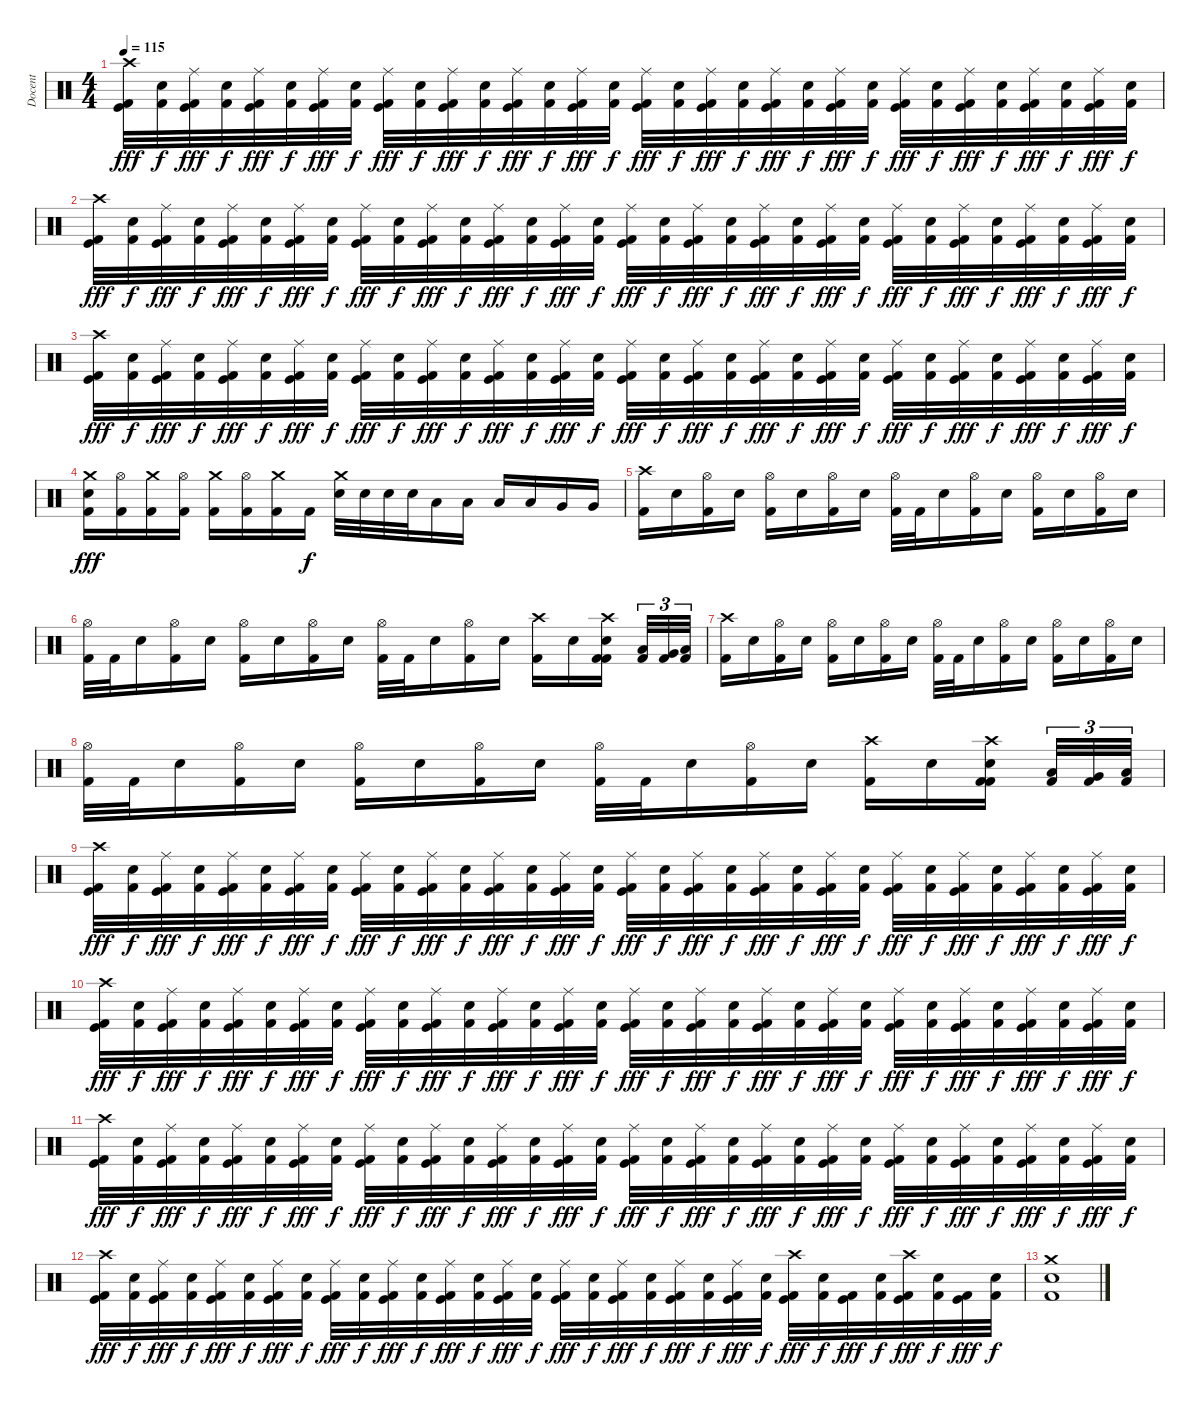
\track ("Docent" "Docent") {instrument percussion}
\staff {score}
\articulation defaults
\ts (4 4)
\tempo 115
\clef neutral
\ks c
("Crash high (hit)" "Kick (hit)" "Kick (hit) 2").32{dy fff} ("Electric Snare (hit)" "Kick (hit) 2").32{dy f} ("Ride (middle)" "Kick (hit)" "Kick (hit) 2").32{dy fff} ("Electric Snare (hit)" "Kick (hit) 2").32{dy f} ("Ride (middle)" "Kick (hit)" "Kick (hit) 2").32{dy fff} ("Electric Snare (hit)" "Kick (hit) 2").32{dy f} ("Ride (middle)" "Kick (hit)" "Kick (hit) 2").32{dy fff} ("Electric Snare (hit)" "Kick (hit) 2").32{dy f} ("Ride (middle)" "Kick (hit)" "Kick (hit) 2").32{dy fff} ("Electric Snare (hit)" "Kick (hit) 2").32{dy f} ("Ride (middle)" "Kick (hit)" "Kick (hit) 2").32{dy fff} ("Electric Snare (hit)" "Kick (hit) 2").32{dy f} ("Ride (middle)" "Kick (hit)" "Kick (hit) 2").32{dy fff} ("Electric Snare (hit)" "Kick (hit) 2").32{dy f} ("Ride (middle)" "Kick (hit)" "Kick (hit) 2").32{dy fff} ("Electric Snare (hit)" "Kick (hit) 2").32{dy f} ("Ride (middle)" "Kick (hit)" "Kick (hit) 2").32{dy fff} ("Electric Snare (hit)" "Kick (hit) 2").32{dy f} ("Ride (middle)" "Kick (hit)" "Kick (hit) 2").32{dy fff} ("Electric Snare (hit)" "Kick (hit) 2").32{dy f} ("Ride (middle)" "Kick (hit)" "Kick (hit) 2").32{dy fff} ("Electric Snare (hit)" "Kick (hit) 2").32{dy f} ("Ride (middle)" "Kick (hit)" "Kick (hit) 2").32{dy fff} ("Electric Snare (hit)" "Kick (hit) 2").32{dy f} ("Ride (middle)" "Kick (hit)" "Kick (hit) 2").32{dy fff} ("Electric Snare (hit)" "Kick (hit) 2").32{dy f} ("Ride (middle)" "Kick (hit)" "Kick (hit) 2").32{dy fff} ("Electric Snare (hit)" "Kick (hit) 2").32{dy f} ("Ride (middle)" "Kick (hit)" "Kick (hit) 2").32{dy fff} ("Electric Snare (hit)" "Kick (hit) 2").32{dy f} ("Ride (middle)" "Kick (hit)" "Kick (hit) 2").32{dy fff} ("Electric Snare (hit)" "Kick (hit) 2").32{dy f} |
("Crash high (hit)" "Kick (hit)" "Kick (hit) 2").32{dy fff} ("Electric Snare (hit)" "Kick (hit) 2").32{dy f} ("Ride (middle)" "Kick (hit)" "Kick (hit) 2").32{dy fff} ("Electric Snare (hit)" "Kick (hit) 2").32{dy f} ("Ride (middle)" "Kick (hit)" "Kick (hit) 2").32{dy fff} ("Electric Snare (hit)" "Kick (hit) 2").32{dy f} ("Ride (middle)" "Kick (hit)" "Kick (hit) 2").32{dy fff} ("Electric Snare (hit)" "Kick (hit) 2").32{dy f} ("Ride (middle)" "Kick (hit)" "Kick (hit) 2").32{dy fff} ("Electric Snare (hit)" "Kick (hit) 2").32{dy f} ("Ride (middle)" "Kick (hit)" "Kick (hit) 2").32{dy fff} ("Electric Snare (hit)" "Kick (hit) 2").32{dy f} ("Ride (middle)" "Kick (hit)" "Kick (hit) 2").32{dy fff} ("Electric Snare (hit)" "Kick (hit) 2").32{dy f} ("Ride (middle)" "Kick (hit)" "Kick (hit) 2").32{dy fff} ("Electric Snare (hit)" "Kick (hit) 2").32{dy f} ("Ride (middle)" "Kick (hit)" "Kick (hit) 2").32{dy fff} ("Electric Snare (hit)" "Kick (hit) 2").32{dy f} ("Ride (middle)" "Kick (hit)" "Kick (hit) 2").32{dy fff} ("Electric Snare (hit)" "Kick (hit) 2").32{dy f} ("Ride (middle)" "Kick (hit)" "Kick (hit) 2").32{dy fff} ("Electric Snare (hit)" "Kick (hit) 2").32{dy f} ("Ride (middle)" "Kick (hit)" "Kick (hit) 2").32{dy fff} ("Electric Snare (hit)" "Kick (hit) 2").32{dy f} ("Ride (middle)" "Kick (hit)" "Kick (hit) 2").32{dy fff} ("Electric Snare (hit)" "Kick (hit) 2").32{dy f} ("Ride (middle)" "Kick (hit)" "Kick (hit) 2").32{dy fff} ("Electric Snare (hit)" "Kick (hit) 2").32{dy f} ("Ride (middle)" "Kick (hit)" "Kick (hit) 2").32{dy fff} ("Electric Snare (hit)" "Kick (hit) 2").32{dy f} ("Ride (middle)" "Kick (hit)" "Kick (hit) 2").32{dy fff} ("Electric Snare (hit)" "Kick (hit) 2").32{dy f} |
("Crash high (hit)" "Kick (hit)" "Kick (hit) 2").32{dy fff} ("Electric Snare (hit)" "Kick (hit) 2").32{dy f} ("Ride (middle)" "Kick (hit)" "Kick (hit) 2").32{dy fff} ("Electric Snare (hit)" "Kick (hit) 2").32{dy f} ("Ride (middle)" "Kick (hit)" "Kick (hit) 2").32{dy fff} ("Electric Snare (hit)" "Kick (hit) 2").32{dy f} ("Ride (middle)" "Kick (hit)" "Kick (hit) 2").32{dy fff} ("Electric Snare (hit)" "Kick (hit) 2").32{dy f} ("Ride (middle)" "Kick (hit)" "Kick (hit) 2").32{dy fff} ("Electric Snare (hit)" "Kick (hit) 2").32{dy f} ("Ride (middle)" "Kick (hit)" "Kick (hit) 2").32{dy fff} ("Electric Snare (hit)" "Kick (hit) 2").32{dy f} ("Ride (middle)" "Kick (hit)" "Kick (hit) 2").32{dy fff} ("Electric Snare (hit)" "Kick (hit) 2").32{dy f} ("Ride (middle)" "Kick (hit)" "Kick (hit) 2").32{dy fff} ("Electric Snare (hit)" "Kick (hit) 2").32{dy f} ("Ride (middle)" "Kick (hit)" "Kick (hit) 2").32{dy fff} ("Electric Snare (hit)" "Kick (hit) 2").32{dy f} ("Ride (middle)" "Kick (hit)" "Kick (hit) 2").32{dy fff} ("Electric Snare (hit)" "Kick (hit) 2").32{dy f} ("Ride (middle)" "Kick (hit)" "Kick (hit) 2").32{dy fff} ("Electric Snare (hit)" "Kick (hit) 2").32{dy f} ("Ride (middle)" "Kick (hit)" "Kick (hit) 2").32{dy fff} ("Electric Snare (hit)" "Kick (hit) 2").32{dy f} ("Ride (middle)" "Kick (hit)" "Kick (hit) 2").32{dy fff} ("Electric Snare (hit)" "Kick (hit) 2").32{dy f} ("Ride (middle)" "Kick (hit)" "Kick (hit) 2").32{dy fff} ("Electric Snare (hit)" "Kick (hit) 2").32{dy f} ("Ride (middle)" "Kick (hit)" "Kick (hit) 2").32{dy fff} ("Electric Snare (hit)" "Kick (hit) 2").32{dy f} ("Ride (middle)" "Kick (hit)" "Kick (hit) 2").32{dy fff} ("Electric Snare (hit)" "Kick (hit) 2").32{dy f} |
("Crash medium (hit)" "Electric Snare (hit)" "Kick (hit) 2").16{dy fff} ("Hi-Hat (open)" "Kick (hit) 2").16 ("Crash medium (hit)" "Kick (hit) 2").16 ("Hi-Hat (open)" "Kick (hit) 2").16 ("Crash medium (hit)" "Kick (hit) 2").16 ("Hi-Hat (open)" "Kick (hit) 2").16 ("Crash medium (hit)" "Kick (hit) 2").16 "Kick (hit) 2".16{dy f} ("Crash medium (hit)" "Electric Snare (hit)").32 "Electric Snare (hit)".32 "Electric Snare (hit)".32 "Electric Snare (hit)".32 "Low Tom (hit)".16 "Low Tom (hit)".16 "Low Tom (hit)".16 "Low Tom (hit)".16 "Very Low Tom (hit)".16 "Very Low Tom (hit)".16 |
("Crash high (hit)" "Kick (hit) 2").16 "Electric Snare (hit)".16 ("Hi-Hat (open)" "Kick (hit) 2").16 "Electric Snare (hit)".16 ("Hi-Hat (open)" "Kick (hit) 2").16 "Electric Snare (hit)".16 ("Hi-Hat (open)" "Kick (hit) 2").16 "Electric Snare (hit)".16 ("Hi-Hat (open)" "Kick (hit) 2").32 "Kick (hit) 2".32 "Electric Snare (hit)".16 ("Hi-Hat (open)" "Kick (hit) 2").16 "Electric Snare (hit)".16 ("Hi-Hat (open)" "Kick (hit) 2").16 "Electric Snare (hit)".16 ("Hi-Hat (open)" "Kick (hit) 2").16 "Electric Snare (hit)".16 |
("Hi-Hat (open)" "Kick (hit) 2").32 "Kick (hit) 2".32 "Electric Snare (hit)".16 ("Hi-Hat (open)" "Kick (hit) 2").16 "Electric Snare (hit)".16 ("Hi-Hat (open)" "Kick (hit) 2").16 "Electric Snare (hit)".16 ("Hi-Hat (open)" "Kick (hit) 2").16 "Electric Snare (hit)".16 ("Hi-Hat (open)" "Kick (hit) 2").32 "Kick (hit) 2".32 "Electric Snare (hit)".16 ("Hi-Hat (open)" "Kick (hit) 2").16 "Electric Snare (hit)".16 ("Crash high (hit)" "Kick (hit) 2").16 "Electric Snare (hit)".16 ("Crash high (hit)" "Electric Snare (hit)" "Kick (hit) 2" "Kick (hit) 2").16 ("Kick (hit) 2" "Low Tom (hit)").32{tu (3 2)} ("Kick (hit) 2" "Very Low Tom (hit)").32{tu (3 2)} ("Kick (hit) 2" "Low Floor Tom (hit)").32{tu (3 2)} |
("Crash high (hit)" "Kick (hit) 2").16 "Electric Snare (hit)".16 ("Hi-Hat (open)" "Kick (hit) 2").16 "Electric Snare (hit)".16 ("Hi-Hat (open)" "Kick (hit) 2").16 "Electric Snare (hit)".16 ("Hi-Hat (open)" "Kick (hit) 2").16 "Electric Snare (hit)".16 ("Hi-Hat (open)" "Kick (hit) 2").32 "Kick (hit) 2".32 "Electric Snare (hit)".16 ("Hi-Hat (open)" "Kick (hit) 2").16 "Electric Snare (hit)".16 ("Hi-Hat (open)" "Kick (hit) 2").16 "Electric Snare (hit)".16 ("Hi-Hat (open)" "Kick (hit) 2").16 "Electric Snare (hit)".16 |
("Hi-Hat (open)" "Kick (hit) 2").32 "Kick (hit) 2".32 "Electric Snare (hit)".16 ("Hi-Hat (open)" "Kick (hit) 2").16 "Electric Snare (hit)".16 ("Hi-Hat (open)" "Kick (hit) 2").16 "Electric Snare (hit)".16 ("Hi-Hat (open)" "Kick (hit) 2").16 "Electric Snare (hit)".16 ("Hi-Hat (open)" "Kick (hit) 2").32 "Kick (hit) 2".32 "Electric Snare (hit)".16 ("Hi-Hat (open)" "Kick (hit) 2").16 "Electric Snare (hit)".16 ("Crash high (hit)" "Kick (hit) 2").16 "Electric Snare (hit)".16 ("Crash high (hit)" "Electric Snare (hit)" "Kick (hit) 2" "Kick (hit) 2").16 ("Kick (hit) 2" "Low Tom (hit)").32{tu (3 2)} ("Kick (hit) 2" "Very Low Tom (hit)").32{tu (3 2)} ("Kick (hit) 2" "Low Floor Tom (hit)").32{tu (3 2)} |
("Crash high (hit)" "Kick (hit)" "Kick (hit) 2").32{dy fff} ("Electric Snare (hit)" "Kick (hit) 2").32{dy f} ("Ride (middle)" "Kick (hit)" "Kick (hit) 2").32{dy fff} ("Electric Snare (hit)" "Kick (hit) 2").32{dy f} ("Ride (middle)" "Kick (hit)" "Kick (hit) 2").32{dy fff} ("Electric Snare (hit)" "Kick (hit) 2").32{dy f} ("Ride (middle)" "Kick (hit)" "Kick (hit) 2").32{dy fff} ("Electric Snare (hit)" "Kick (hit) 2").32{dy f} ("Ride (middle)" "Kick (hit)" "Kick (hit) 2").32{dy fff} ("Electric Snare (hit)" "Kick (hit) 2").32{dy f} ("Ride (middle)" "Kick (hit)" "Kick (hit) 2").32{dy fff} ("Electric Snare (hit)" "Kick (hit) 2").32{dy f} ("Ride (middle)" "Kick (hit)" "Kick (hit) 2").32{dy fff} ("Electric Snare (hit)" "Kick (hit) 2").32{dy f} ("Ride (middle)" "Kick (hit)" "Kick (hit) 2").32{dy fff} ("Electric Snare (hit)" "Kick (hit) 2").32{dy f} ("Ride (middle)" "Kick (hit)" "Kick (hit) 2").32{dy fff} ("Electric Snare (hit)" "Kick (hit) 2").32{dy f} ("Ride (middle)" "Kick (hit)" "Kick (hit) 2").32{dy fff} ("Electric Snare (hit)" "Kick (hit) 2").32{dy f} ("Ride (middle)" "Kick (hit)" "Kick (hit) 2").32{dy fff} ("Electric Snare (hit)" "Kick (hit) 2").32{dy f} ("Ride (middle)" "Kick (hit)" "Kick (hit) 2").32{dy fff} ("Electric Snare (hit)" "Kick (hit) 2").32{dy f} ("Ride (middle)" "Kick (hit)" "Kick (hit) 2").32{dy fff} ("Electric Snare (hit)" "Kick (hit) 2").32{dy f} ("Ride (middle)" "Kick (hit)" "Kick (hit) 2").32{dy fff} ("Electric Snare (hit)" "Kick (hit) 2").32{dy f} ("Ride (middle)" "Kick (hit)" "Kick (hit) 2").32{dy fff} ("Electric Snare (hit)" "Kick (hit) 2").32{dy f} ("Ride (middle)" "Kick (hit)" "Kick (hit) 2").32{dy fff} ("Electric Snare (hit)" "Kick (hit) 2").32{dy f} |
("Crash high (hit)" "Kick (hit)" "Kick (hit) 2").32{dy fff} ("Electric Snare (hit)" "Kick (hit) 2").32{dy f} ("Ride (middle)" "Kick (hit)" "Kick (hit) 2").32{dy fff} ("Electric Snare (hit)" "Kick (hit) 2").32{dy f} ("Ride (middle)" "Kick (hit)" "Kick (hit) 2").32{dy fff} ("Electric Snare (hit)" "Kick (hit) 2").32{dy f} ("Ride (middle)" "Kick (hit)" "Kick (hit) 2").32{dy fff} ("Electric Snare (hit)" "Kick (hit) 2").32{dy f} ("Ride (middle)" "Kick (hit)" "Kick (hit) 2").32{dy fff} ("Electric Snare (hit)" "Kick (hit) 2").32{dy f} ("Ride (middle)" "Kick (hit)" "Kick (hit) 2").32{dy fff} ("Electric Snare (hit)" "Kick (hit) 2").32{dy f} ("Ride (middle)" "Kick (hit)" "Kick (hit) 2").32{dy fff} ("Electric Snare (hit)" "Kick (hit) 2").32{dy f} ("Ride (middle)" "Kick (hit)" "Kick (hit) 2").32{dy fff} ("Electric Snare (hit)" "Kick (hit) 2").32{dy f} ("Ride (middle)" "Kick (hit)" "Kick (hit) 2").32{dy fff} ("Electric Snare (hit)" "Kick (hit) 2").32{dy f} ("Ride (middle)" "Kick (hit)" "Kick (hit) 2").32{dy fff} ("Electric Snare (hit)" "Kick (hit) 2").32{dy f} ("Ride (middle)" "Kick (hit)" "Kick (hit) 2").32{dy fff} ("Electric Snare (hit)" "Kick (hit) 2").32{dy f} ("Ride (middle)" "Kick (hit)" "Kick (hit) 2").32{dy fff} ("Electric Snare (hit)" "Kick (hit) 2").32{dy f} ("Ride (middle)" "Kick (hit)" "Kick (hit) 2").32{dy fff} ("Electric Snare (hit)" "Kick (hit) 2").32{dy f} ("Ride (middle)" "Kick (hit)" "Kick (hit) 2").32{dy fff} ("Electric Snare (hit)" "Kick (hit) 2").32{dy f} ("Ride (middle)" "Kick (hit)" "Kick (hit) 2").32{dy fff} ("Electric Snare (hit)" "Kick (hit) 2").32{dy f} ("Ride (middle)" "Kick (hit)" "Kick (hit) 2").32{dy fff} ("Electric Snare (hit)" "Kick (hit) 2").32{dy f} |
("Crash high (hit)" "Kick (hit)" "Kick (hit) 2").32{dy fff} ("Electric Snare (hit)" "Kick (hit) 2").32{dy f} ("Ride (middle)" "Kick (hit)" "Kick (hit) 2").32{dy fff} ("Electric Snare (hit)" "Kick (hit) 2").32{dy f} ("Ride (middle)" "Kick (hit)" "Kick (hit) 2").32{dy fff} ("Electric Snare (hit)" "Kick (hit) 2").32{dy f} ("Ride (middle)" "Kick (hit)" "Kick (hit) 2").32{dy fff} ("Electric Snare (hit)" "Kick (hit) 2").32{dy f} ("Ride (middle)" "Kick (hit)" "Kick (hit) 2").32{dy fff} ("Electric Snare (hit)" "Kick (hit) 2").32{dy f} ("Ride (middle)" "Kick (hit)" "Kick (hit) 2").32{dy fff} ("Electric Snare (hit)" "Kick (hit) 2").32{dy f} ("Ride (middle)" "Kick (hit)" "Kick (hit) 2").32{dy fff} ("Electric Snare (hit)" "Kick (hit) 2").32{dy f} ("Ride (middle)" "Kick (hit)" "Kick (hit) 2").32{dy fff} ("Electric Snare (hit)" "Kick (hit) 2").32{dy f} ("Ride (middle)" "Kick (hit)" "Kick (hit) 2").32{dy fff} ("Electric Snare (hit)" "Kick (hit) 2").32{dy f} ("Ride (middle)" "Kick (hit)" "Kick (hit) 2").32{dy fff} ("Electric Snare (hit)" "Kick (hit) 2").32{dy f} ("Ride (middle)" "Kick (hit)" "Kick (hit) 2").32{dy fff} ("Electric Snare (hit)" "Kick (hit) 2").32{dy f} ("Ride (middle)" "Kick (hit)" "Kick (hit) 2").32{dy fff} ("Electric Snare (hit)" "Kick (hit) 2").32{dy f} ("Ride (middle)" "Kick (hit)" "Kick (hit) 2").32{dy fff} ("Electric Snare (hit)" "Kick (hit) 2").32{dy f} ("Ride (middle)" "Kick (hit)" "Kick (hit) 2").32{dy fff} ("Electric Snare (hit)" "Kick (hit) 2").32{dy f} ("Ride (middle)" "Kick (hit)" "Kick (hit) 2").32{dy fff} ("Electric Snare (hit)" "Kick (hit) 2").32{dy f} ("Ride (middle)" "Kick (hit)" "Kick (hit) 2").32{dy fff} ("Electric Snare (hit)" "Kick (hit) 2").32{dy f} |
("Crash high (hit)" "Kick (hit)" "Kick (hit) 2").32{dy fff} ("Electric Snare (hit)" "Kick (hit) 2").32{dy f} ("Ride (middle)" "Kick (hit)" "Kick (hit) 2").32{dy fff} ("Electric Snare (hit)" "Kick (hit) 2").32{dy f} ("Ride (middle)" "Kick (hit)" "Kick (hit) 2").32{dy fff} ("Electric Snare (hit)" "Kick (hit) 2").32{dy f} ("Ride (middle)" "Kick (hit)" "Kick (hit) 2").32{dy fff} ("Electric Snare (hit)" "Kick (hit) 2").32{dy f} ("Ride (middle)" "Kick (hit)" "Kick (hit) 2").32{dy fff} ("Electric Snare (hit)" "Kick (hit) 2").32{dy f} ("Ride (middle)" "Kick (hit)" "Kick (hit) 2").32{dy fff} ("Electric Snare (hit)" "Kick (hit) 2").32{dy f} ("Ride (middle)" "Kick (hit)" "Kick (hit) 2").32{dy fff} ("Electric Snare (hit)" "Kick (hit) 2").32{dy f} ("Ride (middle)" "Kick (hit)" "Kick (hit) 2").32{dy fff} ("Electric Snare (hit)" "Kick (hit) 2").32{dy f} ("Ride (middle)" "Kick (hit)" "Kick (hit) 2").32{dy fff} ("Electric Snare (hit)" "Kick (hit) 2").32{dy f} ("Ride (middle)" "Kick (hit)" "Kick (hit) 2").32{dy fff} ("Electric Snare (hit)" "Kick (hit) 2").32{dy f} ("Ride (middle)" "Kick (hit)" "Kick (hit) 2").32{dy fff} ("Electric Snare (hit)" "Kick (hit) 2").32{dy f} ("Ride (middle)" "Kick (hit)" "Kick (hit) 2").32{dy fff} ("Electric Snare (hit)" "Kick (hit) 2").32{dy f} ("Crash high (hit)" "Kick (hit)" "Kick (hit) 2").32{dy fff} ("Electric Snare (hit)" "Kick (hit) 2").32{dy f} ("Kick (hit)" "Kick (hit) 2").32{dy fff} ("Electric Snare (hit)" "Kick (hit) 2").32{dy f} ("Crash high (hit)" "Kick (hit)" "Kick (hit) 2").32{dy fff} ("Electric Snare (hit)" "Kick (hit) 2").32{dy f} ("Kick (hit)" "Kick (hit) 2").32{dy fff} ("Electric Snare (hit)" "Kick (hit) 2").32{dy f} |
("Crash medium (hit)" "Electric Snare (hit)" "Kick (hit) 2").1
